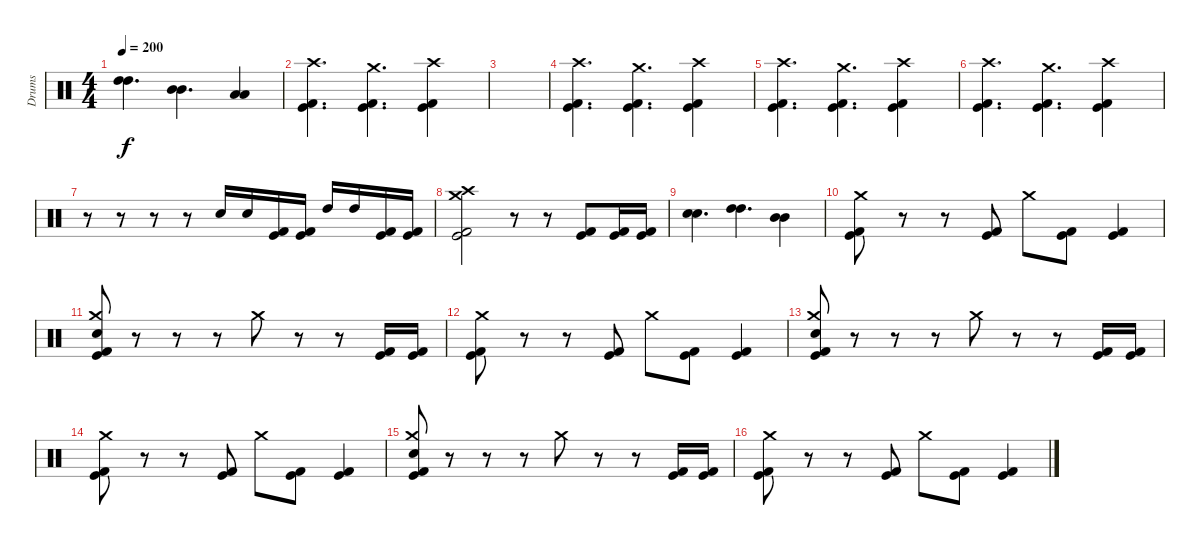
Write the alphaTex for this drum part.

\track ("Drums" "Drums") {instrument percussion}
\staff {score}
\articulation defaults
\ts (4 4)
\tempo 200
\clef neutral
\ks c
("High Tom (hit)" "High Tom (hit)").4{d dy f} ("Mid Tom (hit)" "Mid Tom (hit)").4{d} ("Low Tom (hit)" "Low Tom (hit)").4 |
("Crash high (hit)" "Kick (hit) 2" "Kick (hit)").4{d} ("Crash medium (hit)" "Kick (hit) 2" "Kick (hit)").4{d} ("Crash high (hit)" "Kick (hit) 2" "Kick (hit)").4 |
|
("Crash high (hit)" "Kick (hit) 2" "Kick (hit)").4{d} ("Crash medium (hit)" "Kick (hit) 2" "Kick (hit)").4{d} ("Crash high (hit)" "Kick (hit) 2" "Kick (hit)").4 |
("Crash high (hit)" "Kick (hit) 2" "Kick (hit)").4{d} ("Crash medium (hit)" "Kick (hit) 2" "Kick (hit)").4{d} ("Crash high (hit)" "Kick (hit) 2" "Kick (hit)").4 |
("Crash high (hit)" "Kick (hit) 2" "Kick (hit)").4{d} ("Crash medium (hit)" "Kick (hit) 2" "Kick (hit)").4{d} ("Crash high (hit)" "Kick (hit) 2" "Kick (hit)").4 |
r.8 r.8 r.8 r.8 "Electric Snare (hit)".16 "Electric Snare (hit)".16 ("Kick (hit) 2" "Kick (hit)").16 ("Kick (hit) 2" "Kick (hit)").16 "High Tom (hit)".16 "High Tom (hit)".16 ("Kick (hit) 2" "Kick (hit)").16 ("Kick (hit) 2" "Kick (hit)").16 |
("Crash medium (hit)" "Crash high (hit)" "Kick (hit) 2" "Kick (hit)").2 r.8 r.8 ("Kick (hit) 2" "Kick (hit)").8 ("Kick (hit) 2" "Kick (hit)").16 ("Kick (hit) 2" "Kick (hit)").16 |
("Electric Snare (hit)" "Electric Snare (hit)").4{d} ("High Tom (hit)" "High Tom (hit)").4{d} ("Mid Tom (hit)" "Mid Tom (hit)").4 |
("Crash medium (hit)" "Kick (hit) 2" "Kick (hit)").8 r.8 r.8 ("Kick (hit) 2" "Kick (hit)").8 "Crash medium (hit)".8 ("Kick (hit) 2" "Kick (hit)").8 ("Kick (hit) 2" "Kick (hit)").4 |
("Crash medium (hit)" "Electric Snare (hit)" "Kick (hit) 2" "Kick (hit)").8 r.8 r.8 r.8 "Crash medium (hit)".8 r.8 r.8 ("Kick (hit) 2" "Kick (hit)").16 ("Kick (hit) 2" "Kick (hit)").16 |
("Crash medium (hit)" "Kick (hit) 2" "Kick (hit)").8 r.8 r.8 ("Kick (hit) 2" "Kick (hit)").8 "Crash medium (hit)".8 ("Kick (hit) 2" "Kick (hit)").8 ("Kick (hit) 2" "Kick (hit)").4 |
("Crash medium (hit)" "Electric Snare (hit)" "Kick (hit) 2" "Kick (hit)").8 r.8 r.8 r.8 "Crash medium (hit)".8 r.8 r.8 ("Kick (hit) 2" "Kick (hit)").16 ("Kick (hit) 2" "Kick (hit)").16 |
("Crash medium (hit)" "Kick (hit) 2" "Kick (hit)").8 r.8 r.8 ("Kick (hit) 2" "Kick (hit)").8 "Crash medium (hit)".8 ("Kick (hit) 2" "Kick (hit)").8 ("Kick (hit) 2" "Kick (hit)").4 |
("Crash medium (hit)" "Electric Snare (hit)" "Kick (hit) 2" "Kick (hit)").8 r.8 r.8 r.8 "Crash medium (hit)".8 r.8 r.8 ("Kick (hit) 2" "Kick (hit)").16 ("Kick (hit) 2" "Kick (hit)").16 |
("Crash medium (hit)" "Kick (hit) 2" "Kick (hit)").8 r.8 r.8 ("Kick (hit) 2" "Kick (hit)").8 "Crash medium (hit)".8 ("Kick (hit) 2" "Kick (hit)").8 ("Kick (hit) 2" "Kick (hit)").4
